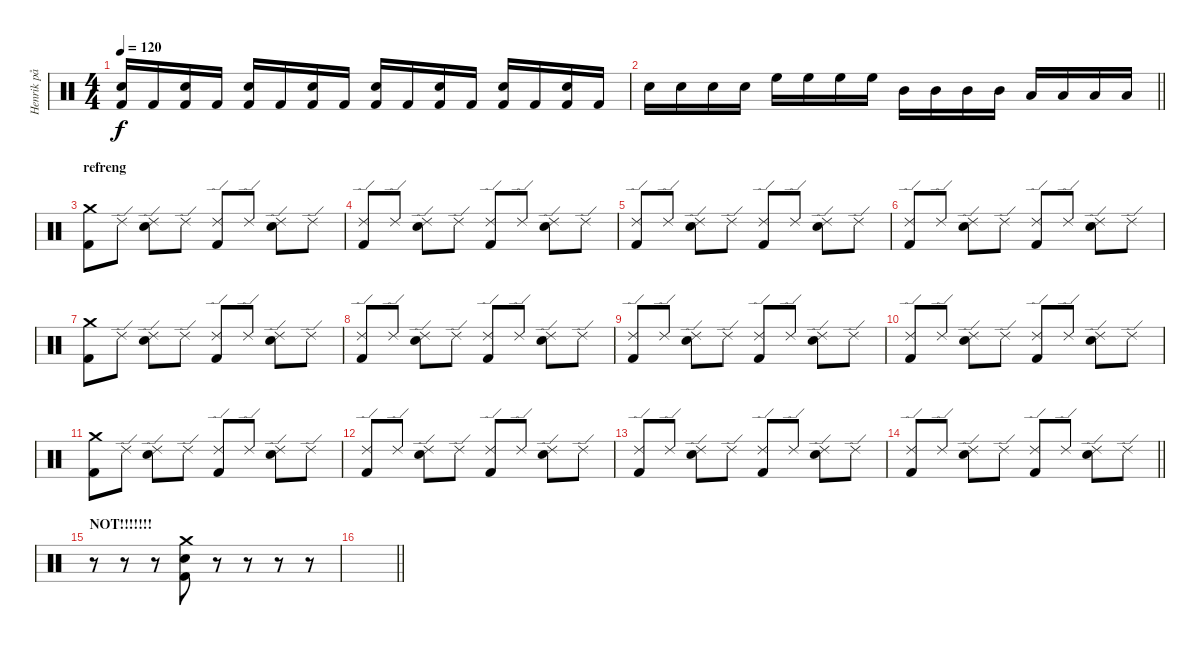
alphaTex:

\track ("Henrik på trommer" "Henrik på ") {instrument percussion}
\staff {score}
\articulation defaults
\ts (4 4)
\tempo 120
\clef neutral
\ks c
("Electric Snare (hit)" "Kick (hit) 2").16{dy f} "Kick (hit) 2".16 ("Electric Snare (hit)" "Kick (hit) 2").16 "Kick (hit) 2".16 ("Electric Snare (hit)" "Kick (hit) 2").16 "Kick (hit) 2".16 ("Electric Snare (hit)" "Kick (hit) 2").16 "Kick (hit) 2".16 ("Electric Snare (hit)" "Kick (hit) 2").16 "Kick (hit) 2".16 ("Electric Snare (hit)" "Kick (hit) 2").16 "Kick (hit) 2".16 ("Electric Snare (hit)" "Kick (hit) 2").16 "Kick (hit) 2".16 ("Electric Snare (hit)" "Kick (hit) 2").16 "Kick (hit) 2".16 |
\barLineRight lightlight "Electric Snare (hit)".16 "Electric Snare (hit)".16 "Electric Snare (hit)".16 "Electric Snare (hit)".16 "High Floor Tom (hit)".16 "High Floor Tom (hit)".16 "High Floor Tom (hit)".16 "High Floor Tom (hit)".16 "Mid Tom (hit)".16 "Mid Tom (hit)".16 "Mid Tom (hit)".16 "Mid Tom (hit)".16 "Low Tom (hit)".16 "Low Tom (hit)".16 "Low Tom (hit)".16 "Low Tom (hit)".16
|
\section ("" "refreng")
("Crash medium (hit)" "Kick (hit) 2").8 "Ride (edge) 2".8 ("Ride (edge) 2" "Electric Snare (hit)").8 "Ride (edge) 2".8 ("Ride (edge) 2" "Kick (hit) 2").8 "Ride (edge) 2".8 ("Ride (edge) 2" "Electric Snare (hit)").8 "Ride (edge) 2".8 |
("Ride (edge) 2" "Kick (hit) 2").8 "Ride (edge) 2".8 ("Ride (edge) 2" "Electric Snare (hit)").8 "Ride (edge) 2".8 ("Ride (edge) 2" "Kick (hit) 2").8 "Ride (edge) 2".8 ("Ride (edge) 2" "Electric Snare (hit)").8 "Ride (edge) 2".8 |
("Ride (edge) 2" "Kick (hit) 2").8 "Ride (edge) 2".8 ("Ride (edge) 2" "Electric Snare (hit)").8 "Ride (edge) 2".8 ("Ride (edge) 2" "Kick (hit) 2").8 "Ride (edge) 2".8 ("Ride (edge) 2" "Electric Snare (hit)").8 "Ride (edge) 2".8 |
("Ride (edge) 2" "Kick (hit) 2").8 "Ride (edge) 2".8 ("Ride (edge) 2" "Electric Snare (hit)").8 "Ride (edge) 2".8 ("Ride (edge) 2" "Kick (hit) 2").8 "Ride (edge) 2".8 ("Ride (edge) 2" "Electric Snare (hit)").8 "Ride (edge) 2".8 |
("Crash medium (hit)" "Kick (hit) 2").8 "Ride (edge) 2".8 ("Ride (edge) 2" "Electric Snare (hit)").8 "Ride (edge) 2".8 ("Ride (edge) 2" "Kick (hit) 2").8 "Ride (edge) 2".8 ("Ride (edge) 2" "Electric Snare (hit)").8 "Ride (edge) 2".8 |
("Ride (edge) 2" "Kick (hit) 2").8 "Ride (edge) 2".8 ("Ride (edge) 2" "Electric Snare (hit)").8 "Ride (edge) 2".8 ("Ride (edge) 2" "Kick (hit) 2").8 "Ride (edge) 2".8 ("Ride (edge) 2" "Electric Snare (hit)").8 "Ride (edge) 2".8 |
("Ride (edge) 2" "Kick (hit) 2").8 "Ride (edge) 2".8 ("Ride (edge) 2" "Electric Snare (hit)").8 "Ride (edge) 2".8 ("Ride (edge) 2" "Kick (hit) 2").8 "Ride (edge) 2".8 ("Ride (edge) 2" "Electric Snare (hit)").8 "Ride (edge) 2".8 |
("Ride (edge) 2" "Kick (hit) 2").8 "Ride (edge) 2".8 ("Ride (edge) 2" "Electric Snare (hit)").8 "Ride (edge) 2".8 ("Ride (edge) 2" "Kick (hit) 2").8 "Ride (edge) 2".8 ("Ride (edge) 2" "Electric Snare (hit)").8 "Ride (edge) 2".8 |
("Crash medium (hit)" "Kick (hit) 2").8 "Ride (edge) 2".8 ("Ride (edge) 2" "Electric Snare (hit)").8 "Ride (edge) 2".8 ("Ride (edge) 2" "Kick (hit) 2").8 "Ride (edge) 2".8 ("Ride (edge) 2" "Electric Snare (hit)").8 "Ride (edge) 2".8 |
("Ride (edge) 2" "Kick (hit) 2").8 "Ride (edge) 2".8 ("Ride (edge) 2" "Electric Snare (hit)").8 "Ride (edge) 2".8 ("Ride (edge) 2" "Kick (hit) 2").8 "Ride (edge) 2".8 ("Ride (edge) 2" "Electric Snare (hit)").8 "Ride (edge) 2".8 |
("Ride (edge) 2" "Kick (hit) 2").8 "Ride (edge) 2".8 ("Ride (edge) 2" "Electric Snare (hit)").8 "Ride (edge) 2".8 ("Ride (edge) 2" "Kick (hit) 2").8 "Ride (edge) 2".8 ("Ride (edge) 2" "Electric Snare (hit)").8 "Ride (edge) 2".8 |
\barLineRight lightlight
("Ride (edge) 2" "Kick (hit) 2").8 "Ride (edge) 2".8 ("Ride (edge) 2" "Electric Snare (hit)").8 "Ride (edge) 2".8 ("Ride (edge) 2" "Kick (hit) 2").8 "Ride (edge) 2".8 ("Ride (edge) 2" "Electric Snare (hit)").8 "Ride (edge) 2".8 |
\section ("" "NOT!!!!!!!")
r.8 r.8 r.8 ("Electric Snare (hit)" "Crash medium (hit)" "Kick (hit) 2").8 r.8 r.8 r.8 r.8 |
\barLineRight lightlight
